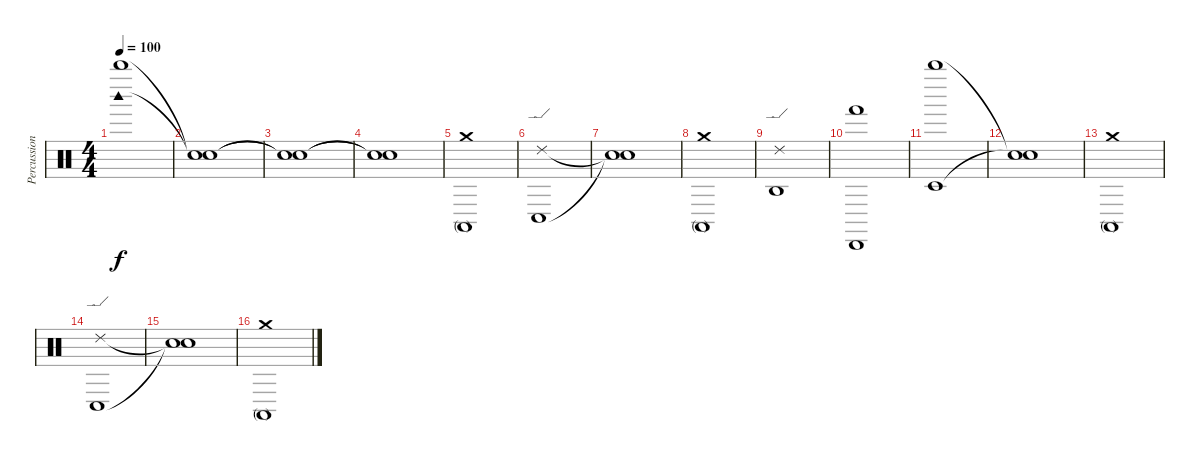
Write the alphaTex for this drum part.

\track ("Percussion Organ" "Percussion") {instrument percussion}
\staff {score}
\articulation defaults
\ts (4 4)
\tempo 100
\clef neutral
\ks c
("Whistle high (hit)" "Woodblock high (hit)").1{dy f} |
("Snare (hit)"{t} "Snare (hit)"{t}).1 |
("Snare (hit)"{t} "Snare (hit)"{t}).1 |
("Snare (hit)"{t} "Snare (hit)"{t}).1 |
("Crash medium (hit)" "Conga high (mute)").1 |
("Ride (edge) 2" "Conga low (hit)").1 |
("Snare (hit)"{t} "Snare (hit)"{t}).1 |
("Crash medium (hit)" "Conga high (mute)").1 |
("Ride (edge) 2" "Agogo high (hit)").1 |
("Hand (hit)" "Cabasa (hit)").1 |
("Timbale low (hit)" "Whistle high (hit)").1 |
("Snare (hit)"{t} "Snare (hit)"{t}).1 |
("Crash medium (hit)" "Conga high (mute)").1 |
("Ride (edge) 2" "Conga low (hit)").1 |
("Snare (hit)"{t} "Snare (hit)"{t}).1 |
("Crash medium (hit)" "Conga high (mute)").1
